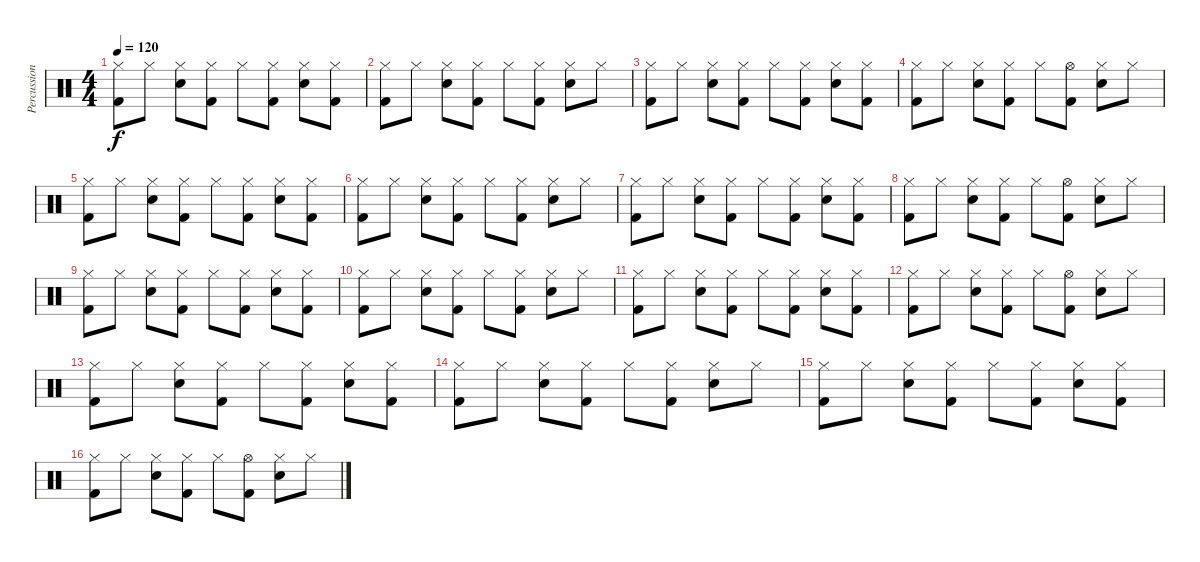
\track ("Percussions" "Percussion") {instrument percussion}
\staff {score}
\articulation defaults
\ts (4 4)
\tempo 120
\clef neutral
\ks c
("Hi-Hat (closed)" "Kick (hit) 2").8{dy f} "Hi-Hat (closed)".8 ("Hi-Hat (closed)" "Electric Snare (hit)").8 ("Hi-Hat (closed)" "Kick (hit) 2").8 "Hi-Hat (closed)".8 ("Hi-Hat (closed)" "Kick (hit) 2").8 ("Hi-Hat (closed)" "Electric Snare (hit)").8 ("Hi-Hat (closed)" "Kick (hit) 2").8 |
("Hi-Hat (closed)" "Kick (hit) 2").8 "Hi-Hat (closed)".8 ("Hi-Hat (closed)" "Electric Snare (hit)").8 ("Hi-Hat (closed)" "Kick (hit) 2").8 "Hi-Hat (closed)".8 ("Hi-Hat (closed)" "Kick (hit) 2").8 ("Hi-Hat (closed)" "Electric Snare (hit)").8 "Hi-Hat (closed)".8 |
("Hi-Hat (closed)" "Kick (hit) 2").8 "Hi-Hat (closed)".8 ("Hi-Hat (closed)" "Electric Snare (hit)").8 ("Hi-Hat (closed)" "Kick (hit) 2").8 "Hi-Hat (closed)".8 ("Hi-Hat (closed)" "Kick (hit) 2").8 ("Hi-Hat (closed)" "Electric Snare (hit)").8 ("Hi-Hat (closed)" "Kick (hit) 2").8 |
("Hi-Hat (closed)" "Kick (hit) 2").8 "Hi-Hat (closed)".8 ("Hi-Hat (closed)" "Electric Snare (hit)").8 ("Hi-Hat (closed)" "Kick (hit) 2").8 "Hi-Hat (closed)".8 ("Hi-Hat (open)" "Kick (hit) 2").8 ("Hi-Hat (closed)" "Electric Snare (hit)").8 "Hi-Hat (closed)".8 |
("Hi-Hat (closed)" "Kick (hit) 2").8 "Hi-Hat (closed)".8 ("Hi-Hat (closed)" "Electric Snare (hit)").8 ("Hi-Hat (closed)" "Kick (hit) 2").8 "Hi-Hat (closed)".8 ("Hi-Hat (closed)" "Kick (hit) 2").8 ("Hi-Hat (closed)" "Electric Snare (hit)").8 ("Hi-Hat (closed)" "Kick (hit) 2").8 |
("Hi-Hat (closed)" "Kick (hit) 2").8 "Hi-Hat (closed)".8 ("Hi-Hat (closed)" "Electric Snare (hit)").8 ("Hi-Hat (closed)" "Kick (hit) 2").8 "Hi-Hat (closed)".8 ("Hi-Hat (closed)" "Kick (hit) 2").8 ("Hi-Hat (closed)" "Electric Snare (hit)").8 "Hi-Hat (closed)".8 |
("Hi-Hat (closed)" "Kick (hit) 2").8 "Hi-Hat (closed)".8 ("Hi-Hat (closed)" "Electric Snare (hit)").8 ("Hi-Hat (closed)" "Kick (hit) 2").8 "Hi-Hat (closed)".8 ("Hi-Hat (closed)" "Kick (hit) 2").8 ("Hi-Hat (closed)" "Electric Snare (hit)").8 ("Hi-Hat (closed)" "Kick (hit) 2").8 |
("Hi-Hat (closed)" "Kick (hit) 2").8 "Hi-Hat (closed)".8 ("Hi-Hat (closed)" "Electric Snare (hit)").8 ("Hi-Hat (closed)" "Kick (hit) 2").8 "Hi-Hat (closed)".8 ("Hi-Hat (open)" "Kick (hit) 2").8 ("Hi-Hat (closed)" "Electric Snare (hit)").8 "Hi-Hat (closed)".8 |
("Hi-Hat (closed)" "Kick (hit) 2").8 "Hi-Hat (closed)".8 ("Hi-Hat (closed)" "Electric Snare (hit)").8 ("Hi-Hat (closed)" "Kick (hit) 2").8 "Hi-Hat (closed)".8 ("Hi-Hat (closed)" "Kick (hit) 2").8 ("Hi-Hat (closed)" "Electric Snare (hit)").8 ("Hi-Hat (closed)" "Kick (hit) 2").8 |
("Hi-Hat (closed)" "Kick (hit) 2").8 "Hi-Hat (closed)".8 ("Hi-Hat (closed)" "Electric Snare (hit)").8 ("Hi-Hat (closed)" "Kick (hit) 2").8 "Hi-Hat (closed)".8 ("Hi-Hat (closed)" "Kick (hit) 2").8 ("Hi-Hat (closed)" "Electric Snare (hit)").8 "Hi-Hat (closed)".8 |
("Hi-Hat (closed)" "Kick (hit) 2").8 "Hi-Hat (closed)".8 ("Hi-Hat (closed)" "Electric Snare (hit)").8 ("Hi-Hat (closed)" "Kick (hit) 2").8 "Hi-Hat (closed)".8 ("Hi-Hat (closed)" "Kick (hit) 2").8 ("Hi-Hat (closed)" "Electric Snare (hit)").8 ("Hi-Hat (closed)" "Kick (hit) 2").8 |
("Hi-Hat (closed)" "Kick (hit) 2").8 "Hi-Hat (closed)".8 ("Hi-Hat (closed)" "Electric Snare (hit)").8 ("Hi-Hat (closed)" "Kick (hit) 2").8 "Hi-Hat (closed)".8 ("Hi-Hat (open)" "Kick (hit) 2").8 ("Hi-Hat (closed)" "Electric Snare (hit)").8 "Hi-Hat (closed)".8 |
("Hi-Hat (closed)" "Kick (hit) 2").8 "Hi-Hat (closed)".8 ("Hi-Hat (closed)" "Electric Snare (hit)").8 ("Hi-Hat (closed)" "Kick (hit) 2").8 "Hi-Hat (closed)".8 ("Hi-Hat (closed)" "Kick (hit) 2").8 ("Hi-Hat (closed)" "Electric Snare (hit)").8 ("Hi-Hat (closed)" "Kick (hit) 2").8 |
("Hi-Hat (closed)" "Kick (hit) 2").8 "Hi-Hat (closed)".8 ("Hi-Hat (closed)" "Electric Snare (hit)").8 ("Hi-Hat (closed)" "Kick (hit) 2").8 "Hi-Hat (closed)".8 ("Hi-Hat (closed)" "Kick (hit) 2").8 ("Hi-Hat (closed)" "Electric Snare (hit)").8 "Hi-Hat (closed)".8 |
("Hi-Hat (closed)" "Kick (hit) 2").8 "Hi-Hat (closed)".8 ("Hi-Hat (closed)" "Electric Snare (hit)").8 ("Hi-Hat (closed)" "Kick (hit) 2").8 "Hi-Hat (closed)".8 ("Hi-Hat (closed)" "Kick (hit) 2").8 ("Hi-Hat (closed)" "Electric Snare (hit)").8 ("Hi-Hat (closed)" "Kick (hit) 2").8 |
("Hi-Hat (closed)" "Kick (hit) 2").8 "Hi-Hat (closed)".8 ("Hi-Hat (closed)" "Electric Snare (hit)").8 ("Hi-Hat (closed)" "Kick (hit) 2").8 "Hi-Hat (closed)".8 ("Hi-Hat (open)" "Kick (hit) 2").8 ("Hi-Hat (closed)" "Electric Snare (hit)").8 "Hi-Hat (closed)".8
